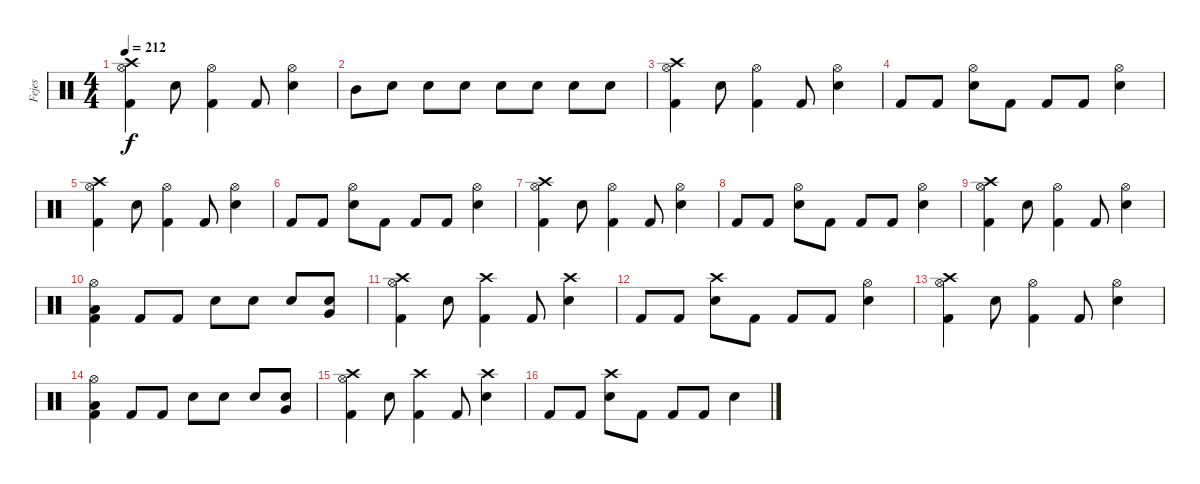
\track ("Fejes" "Fejes") {instrument percussion}
\staff {score}
\articulation defaults
\ts (4 4)
\tempo 212
\clef neutral
\ks c
("Crash high (hit)" "Hi-Hat (open)" "Kick (hit) 2").4{dy f} "Snare (hit) 2".8 ("Hi-Hat (open)" "Kick (hit) 2").4 "Kick (hit) 2".8 ("Hi-Hat (open)" "Snare (hit) 2").4 |
"Mid Tom (hit)".8 "Snare (hit) 2".8 "Snare (hit) 2".8 "Snare (hit) 2".8 "Snare (hit) 2".8 "Snare (hit) 2".8 "Snare (hit) 2".8 "Snare (hit) 2".8 |
("Crash high (hit)" "Hi-Hat (open)" "Kick (hit) 2").4 "Snare (hit) 2".8 ("Hi-Hat (open)" "Kick (hit) 2").4 "Kick (hit) 2".8 ("Hi-Hat (open)" "Snare (hit) 2").4 |
"Kick (hit) 2".8 "Kick (hit) 2".8 ("Hi-Hat (open)" "Snare (hit) 2").8 "Kick (hit) 2".8 "Kick (hit) 2".8 "Kick (hit) 2".8 ("Hi-Hat (open)" "Snare (hit) 2").4 |
("Crash high (hit)" "Hi-Hat (open)" "Kick (hit) 2").4 "Snare (hit) 2".8 ("Hi-Hat (open)" "Kick (hit) 2").4 "Kick (hit) 2".8 ("Hi-Hat (open)" "Snare (hit) 2").4 |
"Kick (hit) 2".8 "Kick (hit) 2".8 ("Hi-Hat (open)" "Snare (hit) 2").8 "Kick (hit) 2".8 "Kick (hit) 2".8 "Kick (hit) 2".8 ("Hi-Hat (open)" "Snare (hit) 2").4 |
("Crash high (hit)" "Hi-Hat (open)" "Kick (hit) 2").4 "Snare (hit) 2".8 ("Hi-Hat (open)" "Kick (hit) 2").4 "Kick (hit) 2".8 ("Hi-Hat (open)" "Snare (hit) 2").4 |
"Kick (hit) 2".8 "Kick (hit) 2".8 ("Hi-Hat (open)" "Snare (hit) 2").8 "Kick (hit) 2".8 "Kick (hit) 2".8 "Kick (hit) 2".8 ("Hi-Hat (open)" "Snare (hit) 2").4 |
("Crash high (hit)" "Hi-Hat (open)" "Kick (hit) 2").4 "Snare (hit) 2".8 ("Hi-Hat (open)" "Kick (hit) 2").4 "Kick (hit) 2".8 ("Hi-Hat (open)" "Snare (hit) 2").4 |
("Hi-Hat (open)" "Low Tom (hit)" "Kick (hit) 2").4 "Kick (hit) 2".8 "Kick (hit) 2".8 "Snare (hit) 2".8 "Snare (hit) 2".8 "Snare (hit) 2".8 ("Very Low Tom (hit)" "Snare (hit) 2").8 |
("Crash high (hit)" "Hi-Hat (open)" "Kick (hit) 2").4 "Snare (hit) 2".8 ("Crash high (hit)" "Kick (hit) 2").4 "Kick (hit) 2".8 ("Crash high (hit)" "Snare (hit) 2").4 |
"Kick (hit) 2".8 "Kick (hit) 2".8 ("Crash high (hit)" "Snare (hit) 2").8 "Kick (hit) 2".8 "Kick (hit) 2".8 "Kick (hit) 2".8 ("Hi-Hat (open)" "Snare (hit) 2").4 |
("Crash high (hit)" "Hi-Hat (open)" "Kick (hit) 2").4 "Snare (hit) 2".8 ("Hi-Hat (open)" "Kick (hit) 2").4 "Kick (hit) 2".8 ("Hi-Hat (open)" "Snare (hit) 2").4 |
("Hi-Hat (open)" "Low Tom (hit)" "Kick (hit) 2").4 "Kick (hit) 2".8 "Kick (hit) 2".8 "Snare (hit) 2".8 "Snare (hit) 2".8 "Snare (hit) 2".8 ("Very Low Tom (hit)" "Snare (hit) 2").8 |
("Crash high (hit)" "Hi-Hat (open)" "Kick (hit) 2").4 "Snare (hit) 2".8 ("Crash high (hit)" "Kick (hit) 2").4 "Kick (hit) 2".8 ("Crash high (hit)" "Snare (hit) 2").4 |
"Kick (hit) 2".8 "Kick (hit) 2".8 ("Crash high (hit)" "Snare (hit) 2").8 "Kick (hit) 2".8 "Kick (hit) 2".8 "Kick (hit) 2".8 "Snare (hit) 2".4
